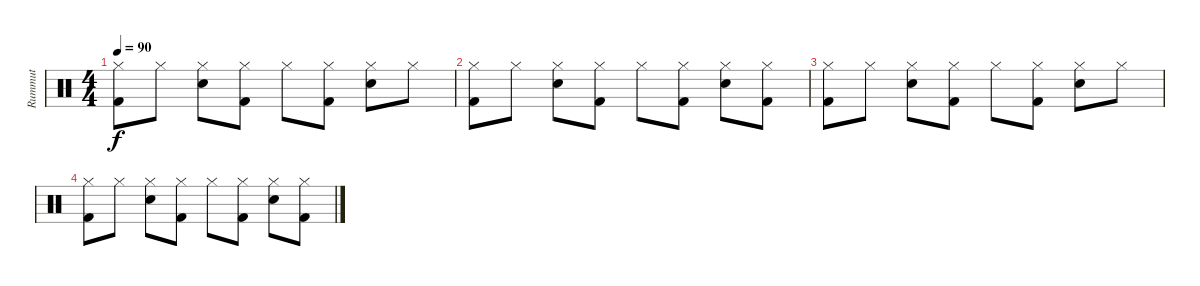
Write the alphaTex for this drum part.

\track ("Rummut" "Rummut") {instrument percussion}
\staff {score}
\articulation defaults
\ts (4 4)
\tempo 90
\clef neutral
\ks c
("Hi-Hat (closed)" "Kick (hit) 2").8{dy f} "Hi-Hat (closed)".8 ("Hi-Hat (closed)" "Snare (hit) 2").8 ("Hi-Hat (closed)" "Kick (hit) 2").8 "Hi-Hat (closed)".8 ("Hi-Hat (closed)" "Kick (hit) 2").8 ("Hi-Hat (closed)" "Snare (hit) 2").8 "Hi-Hat (closed)".8 |
("Hi-Hat (closed)" "Kick (hit) 2").8 "Hi-Hat (closed)".8 ("Hi-Hat (closed)" "Snare (hit) 2").8 ("Hi-Hat (closed)" "Kick (hit) 2").8 "Hi-Hat (closed)".8 ("Hi-Hat (closed)" "Kick (hit) 2").8 ("Hi-Hat (closed)" "Snare (hit) 2").8 ("Hi-Hat (closed)" "Kick (hit) 2").8 |
("Hi-Hat (closed)" "Kick (hit) 2").8 "Hi-Hat (closed)".8 ("Hi-Hat (closed)" "Snare (hit) 2").8 ("Hi-Hat (closed)" "Kick (hit) 2").8 "Hi-Hat (closed)".8 ("Hi-Hat (closed)" "Kick (hit) 2").8 ("Hi-Hat (closed)" "Snare (hit) 2").8 "Hi-Hat (closed)".8 |
("Hi-Hat (closed)" "Kick (hit) 2").8 "Hi-Hat (closed)".8 ("Hi-Hat (closed)" "Snare (hit) 2").8 ("Hi-Hat (closed)" "Kick (hit) 2").8 "Hi-Hat (closed)".8 ("Hi-Hat (closed)" "Kick (hit) 2").8 ("Hi-Hat (closed)" "Snare (hit) 2").8 ("Hi-Hat (closed)" "Kick (hit) 2").8
